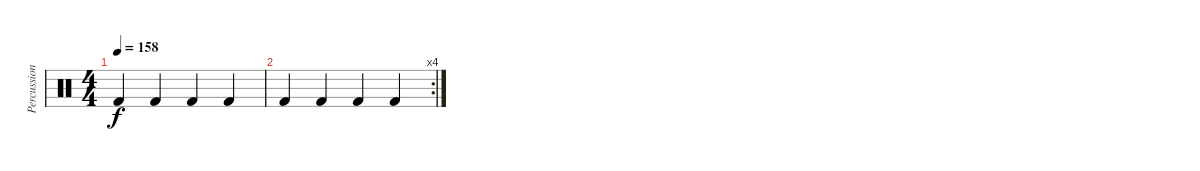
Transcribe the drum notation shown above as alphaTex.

\track ("Percussions" "Percussion") {instrument percussion}
\staff {score}
\articulation defaults
\ts (4 4)
\tempo 158
\clef neutral
\ks c "Kick (hit) 2".4{dy f} "Kick (hit) 2".4 "Kick (hit) 2".4 "Kick (hit) 2".4
|
\rc 4 "Kick (hit) 2".4 "Kick (hit) 2".4 "Kick (hit) 2".4 "Kick (hit) 2".4
